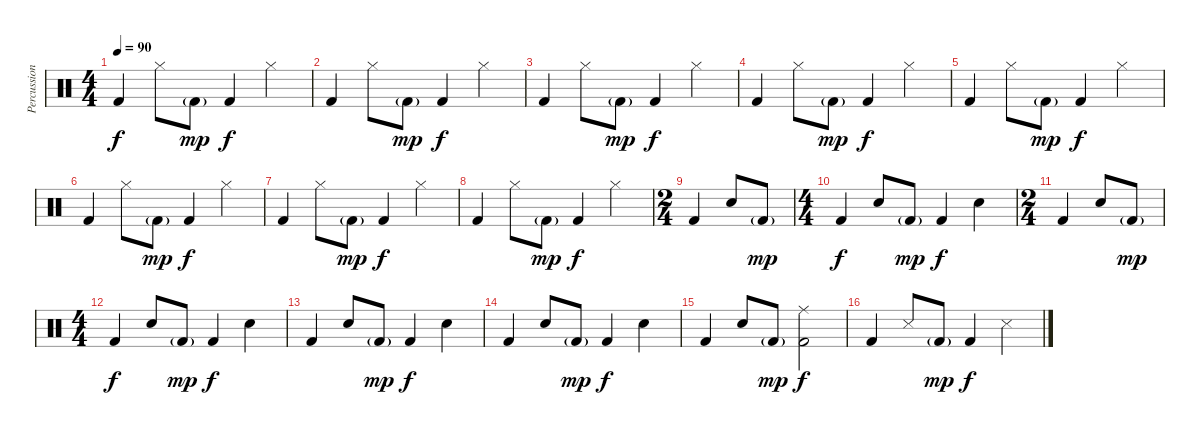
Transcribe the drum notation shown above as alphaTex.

\track ("Percussion" "Percussion") {instrument percussion}
\staff {score}
\articulation defaults
\ts (4 4)
\tempo 90
\clef neutral
\ks c "Kick (hit) 2".4{dy f volume 6} "Hi-Hat (closed)".8{volume 13} "Kick (hit) 2"{g}.8{dy mp volume 6} "Kick (hit) 2".4{dy f} "Hi-Hat (closed)".4{volume 13}
|
"Kick (hit) 2".4{volume 6} "Hi-Hat (closed)".8{volume 13} "Kick (hit) 2"{g}.8{dy mp volume 6} "Kick (hit) 2".4{dy f} "Hi-Hat (closed)".4{volume 13} |
"Kick (hit) 2".4{volume 6} "Hi-Hat (closed)".8{volume 13} "Kick (hit) 2"{g}.8{dy mp volume 6} "Kick (hit) 2".4{dy f} "Hi-Hat (closed)".4{volume 13} |
"Kick (hit) 2".4{volume 6} "Hi-Hat (closed)".8{volume 13} "Kick (hit) 2"{g}.8{dy mp volume 6} "Kick (hit) 2".4{dy f} "Hi-Hat (closed)".4{volume 13} |
"Kick (hit) 2".4{volume 6} "Hi-Hat (closed)".8{volume 13} "Kick (hit) 2"{g}.8{dy mp volume 6} "Kick (hit) 2".4{dy f} "Hi-Hat (closed)".4{volume 13} |
"Kick (hit) 2".4{volume 6} "Hi-Hat (closed)".8{volume 13} "Kick (hit) 2"{g}.8{dy mp volume 6} "Kick (hit) 2".4{dy f} "Hi-Hat (closed)".4{volume 13} |
"Kick (hit) 2".4{volume 6} "Hi-Hat (closed)".8{volume 13} "Kick (hit) 2"{g}.8{dy mp volume 6} "Kick (hit) 2".4{dy f} "Hi-Hat (closed)".4{volume 13} |
"Kick (hit) 2".4{volume 6} "Hi-Hat (closed)".8{volume 13} "Kick (hit) 2"{g}.8{dy mp volume 6} "Kick (hit) 2".4{dy f} "Hi-Hat (closed)".4{volume 13} |
\ts (2 4)
"Kick (hit) 2".4{volume 6} "Snare (hit) 2".8 "Kick (hit) 2"{g}.8{dy mp} |
\ts (4 4)
"Kick (hit) 2".4{dy f} "Snare (hit) 2".8 "Kick (hit) 2"{g}.8{dy mp} "Kick (hit) 2".4{dy f} "Snare (hit) 2".4 |
\ts (2 4)
"Kick (hit) 2".4 "Snare (hit) 2".8 "Kick (hit) 2"{g}.8{dy mp} |
\ts (4 4)
"Kick (hit) 2".4{dy f} "Snare (hit) 2".8 "Kick (hit) 2"{g}.8{dy mp} "Kick (hit) 2".4{dy f} "Snare (hit) 2".4 |
"Kick (hit) 2".4 "Snare (hit) 2".8 "Kick (hit) 2"{g}.8{dy mp} "Kick (hit) 2".4{dy f} "Snare (hit) 2".4 |
"Kick (hit) 2".4 "Snare (hit) 2".8 "Kick (hit) 2"{g}.8{dy mp} "Kick (hit) 2".4{dy f} "Snare (hit) 2".4 |
"Kick (hit) 2".4 "Snare (hit) 2".8 "Kick (hit) 2"{g}.8{dy mp} ("Ride (middle)" "Kick (hit) 2").2{dy f} |
"Kick (hit) 2".4 "Snare (side stick) 3".8 "Kick (hit) 2"{g}.8{dy mp} "Kick (hit) 2".4{dy f} "Snare (side stick) 3".4
